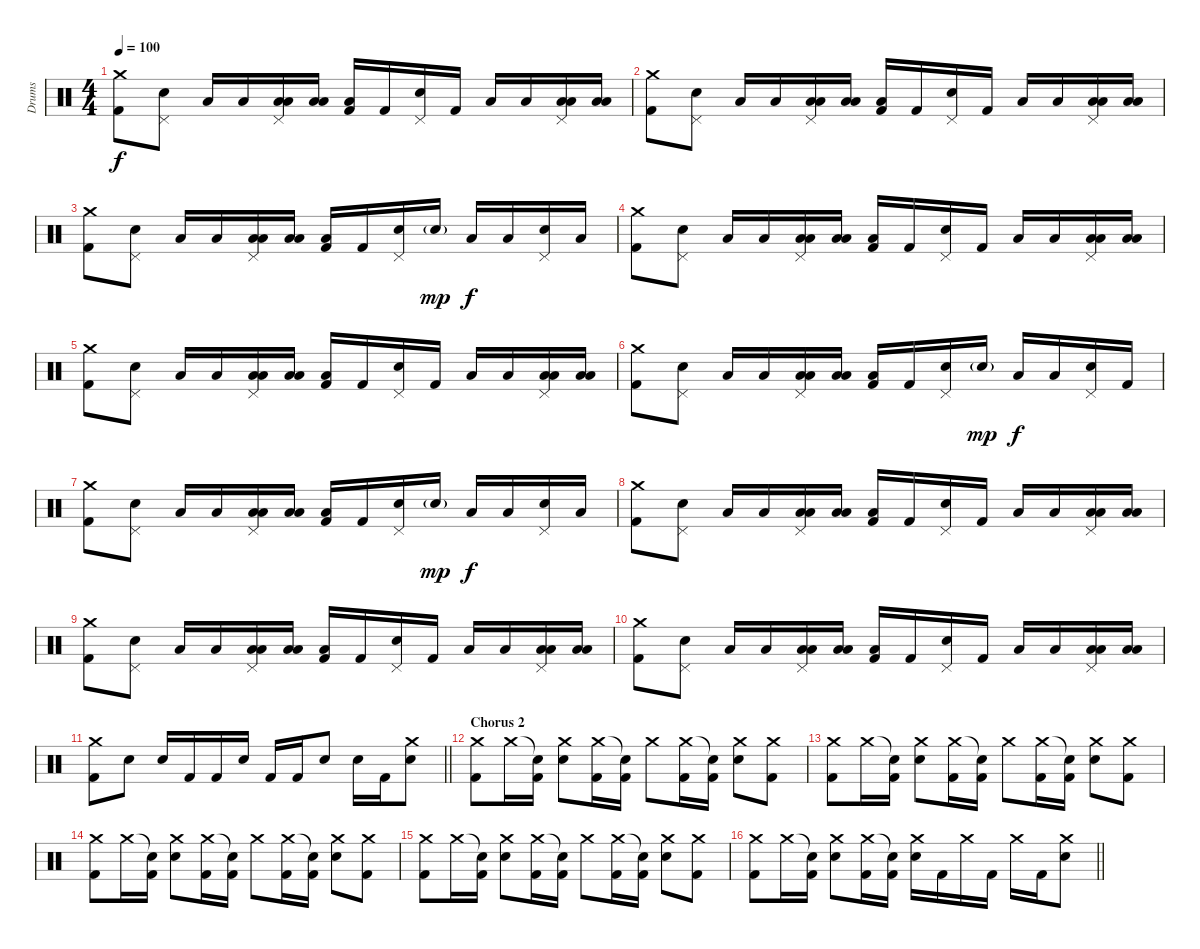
\track ("Drums" "Drums") {instrument percussion}
\staff {score}
\articulation defaults
\ts (4 4)
\tempo 100
\clef neutral
\ks c
("Crash medium (hit)" "Kick (hit) 2").8{dy f} ("Pedal Hi-Hat (hit)" "Electric Snare (hit)").8 "Low Floor Tom (hit)".16 "Low Floor Tom (hit)".16 ("Pedal Hi-Hat (hit)" "Low Tom (hit)" "Low Floor Tom (hit)").16 ("Low Tom (hit)" "Low Floor Tom (hit)").16 ("Low Floor Tom (hit)" "Kick (hit) 2").16 "Kick (hit) 2".16 ("Pedal Hi-Hat (hit)" "Electric Snare (hit)").16 "Kick (hit) 2".16 "Low Floor Tom (hit)".16 "Low Floor Tom (hit)".16 ("Pedal Hi-Hat (hit)" "Low Tom (hit)" "Low Floor Tom (hit)").16 ("Low Tom (hit)" "Low Floor Tom (hit)").16 |
("Crash medium (hit)" "Kick (hit) 2").8 ("Pedal Hi-Hat (hit)" "Electric Snare (hit)").8 "Low Floor Tom (hit)".16 "Low Floor Tom (hit)".16 ("Pedal Hi-Hat (hit)" "Low Tom (hit)" "Low Floor Tom (hit)").16 ("Low Tom (hit)" "Low Floor Tom (hit)").16 ("Low Floor Tom (hit)" "Kick (hit) 2").16 "Kick (hit) 2".16 ("Pedal Hi-Hat (hit)" "Electric Snare (hit)").16 "Kick (hit) 2".16 "Low Floor Tom (hit)".16 "Low Floor Tom (hit)".16 ("Pedal Hi-Hat (hit)" "Low Tom (hit)" "Low Floor Tom (hit)").16 ("Low Tom (hit)" "Low Floor Tom (hit)").16 |
("Crash medium (hit)" "Kick (hit) 2").8 ("Pedal Hi-Hat (hit)" "Electric Snare (hit)").8 "Low Floor Tom (hit)".16 "Low Floor Tom (hit)".16 ("Pedal Hi-Hat (hit)" "Low Tom (hit)" "Low Floor Tom (hit)").16 ("Low Tom (hit)" "Low Floor Tom (hit)").16 ("Low Floor Tom (hit)" "Kick (hit) 2").16 "Kick (hit) 2".16 ("Pedal Hi-Hat (hit)" "Electric Snare (hit)").16 "Electric Snare (hit)"{g}.16{dy mp} "Low Floor Tom (hit)".16{dy f} "Low Floor Tom (hit)".16 ("Pedal Hi-Hat (hit)" "Electric Snare (hit)").16 "Low Floor Tom (hit)".16 |
("Crash medium (hit)" "Kick (hit) 2").8 ("Pedal Hi-Hat (hit)" "Electric Snare (hit)").8 "Low Floor Tom (hit)".16 "Low Floor Tom (hit)".16 ("Pedal Hi-Hat (hit)" "Low Tom (hit)" "Low Floor Tom (hit)").16 ("Low Tom (hit)" "Low Floor Tom (hit)").16 ("Low Floor Tom (hit)" "Kick (hit) 2").16 "Kick (hit) 2".16 ("Pedal Hi-Hat (hit)" "Electric Snare (hit)").16 "Kick (hit) 2".16 "Low Floor Tom (hit)".16 "Low Floor Tom (hit)".16 ("Pedal Hi-Hat (hit)" "Low Tom (hit)" "Low Floor Tom (hit)").16 ("Low Tom (hit)" "Low Floor Tom (hit)").16 |
("Crash medium (hit)" "Kick (hit) 2").8 ("Pedal Hi-Hat (hit)" "Electric Snare (hit)").8 "Low Floor Tom (hit)".16 "Low Floor Tom (hit)".16 ("Pedal Hi-Hat (hit)" "Low Tom (hit)" "Low Floor Tom (hit)").16 ("Low Tom (hit)" "Low Floor Tom (hit)").16 ("Low Floor Tom (hit)" "Kick (hit) 2").16 "Kick (hit) 2".16 ("Pedal Hi-Hat (hit)" "Electric Snare (hit)").16 "Kick (hit) 2".16 "Low Floor Tom (hit)".16 "Low Floor Tom (hit)".16 ("Pedal Hi-Hat (hit)" "Low Tom (hit)" "Low Floor Tom (hit)").16 ("Low Tom (hit)" "Low Floor Tom (hit)").16 |
("Crash medium (hit)" "Kick (hit) 2").8 ("Pedal Hi-Hat (hit)" "Electric Snare (hit)").8 "Low Floor Tom (hit)".16 "Low Floor Tom (hit)".16 ("Pedal Hi-Hat (hit)" "Low Tom (hit)" "Low Floor Tom (hit)").16 ("Low Tom (hit)" "Low Floor Tom (hit)").16 ("Low Floor Tom (hit)" "Kick (hit) 2").16 "Kick (hit) 2".16 ("Pedal Hi-Hat (hit)" "Electric Snare (hit)").16 "Electric Snare (hit)"{g}.16{dy mp} "Low Floor Tom (hit)".16{dy f} "Low Floor Tom (hit)".16 ("Pedal Hi-Hat (hit)" "Electric Snare (hit)").16 "Kick (hit) 2".16 |
("Crash medium (hit)" "Kick (hit) 2").8 ("Pedal Hi-Hat (hit)" "Electric Snare (hit)").8 "Low Floor Tom (hit)".16 "Low Floor Tom (hit)".16 ("Pedal Hi-Hat (hit)" "Low Tom (hit)" "Low Floor Tom (hit)").16 ("Low Tom (hit)" "Low Floor Tom (hit)").16 ("Low Floor Tom (hit)" "Kick (hit) 2").16 "Kick (hit) 2".16 ("Pedal Hi-Hat (hit)" "Electric Snare (hit)").16 "Electric Snare (hit)"{g}.16{dy mp} "Low Floor Tom (hit)".16{dy f} "Low Floor Tom (hit)".16 ("Pedal Hi-Hat (hit)" "Electric Snare (hit)").16 "Low Floor Tom (hit)".16 |
("Crash medium (hit)" "Kick (hit) 2").8 ("Pedal Hi-Hat (hit)" "Electric Snare (hit)").8 "Low Floor Tom (hit)".16 "Low Floor Tom (hit)".16 ("Pedal Hi-Hat (hit)" "Low Tom (hit)" "Low Floor Tom (hit)").16 ("Low Tom (hit)" "Low Floor Tom (hit)").16 ("Low Floor Tom (hit)" "Kick (hit) 2").16 "Kick (hit) 2".16 ("Pedal Hi-Hat (hit)" "Electric Snare (hit)").16 "Kick (hit) 2".16 "Low Floor Tom (hit)".16 "Low Floor Tom (hit)".16 ("Pedal Hi-Hat (hit)" "Low Tom (hit)" "Low Floor Tom (hit)").16 ("Low Tom (hit)" "Low Floor Tom (hit)").16 |
("Crash medium (hit)" "Kick (hit) 2").8 ("Pedal Hi-Hat (hit)" "Electric Snare (hit)").8 "Low Floor Tom (hit)".16 "Low Floor Tom (hit)".16 ("Pedal Hi-Hat (hit)" "Low Tom (hit)" "Low Floor Tom (hit)").16 ("Low Tom (hit)" "Low Floor Tom (hit)").16 ("Low Floor Tom (hit)" "Kick (hit) 2").16 "Kick (hit) 2".16 ("Pedal Hi-Hat (hit)" "Electric Snare (hit)").16 "Kick (hit) 2".16 "Low Floor Tom (hit)".16 "Low Floor Tom (hit)".16 ("Pedal Hi-Hat (hit)" "Low Tom (hit)" "Low Floor Tom (hit)").16 ("Low Tom (hit)" "Low Floor Tom (hit)").16 |
("Crash medium (hit)" "Kick (hit) 2").8 ("Pedal Hi-Hat (hit)" "Electric Snare (hit)").8 "Low Floor Tom (hit)".16 "Low Floor Tom (hit)".16 ("Pedal Hi-Hat (hit)" "Low Tom (hit)" "Low Floor Tom (hit)").16 ("Low Tom (hit)" "Low Floor Tom (hit)").16 ("Low Floor Tom (hit)" "Kick (hit) 2").16 "Kick (hit) 2".16 ("Pedal Hi-Hat (hit)" "Electric Snare (hit)").16 "Kick (hit) 2".16 "Low Floor Tom (hit)".16 "Low Floor Tom (hit)".16 ("Pedal Hi-Hat (hit)" "Low Tom (hit)" "Low Floor Tom (hit)").16 ("Low Tom (hit)" "Low Floor Tom (hit)").16 |
\barLineRight lightlight
("Crash medium (hit)" "Kick (hit) 2").8 "Electric Snare (hit)".8 "Electric Snare (hit)".16 "Kick (hit) 2".16 "Kick (hit) 2".16 "Electric Snare (hit)".16 "Kick (hit) 2".16 "Kick (hit) 2".16 "Electric Snare (hit)".8 "Electric Snare (hit)".16 "Kick (hit) 2".16 ("Crash medium (hit)" "Electric Snare (hit)").8 |
\section ("" "Chorus 2")
("Crash medium (hit)" "Kick (hit) 2").8 "Crash medium (hit)".16 ("Snare (hit)"{t} "Kick (hit) 2").16 ("Crash medium (hit)" "Electric Snare (hit)").8 ("Crash medium (hit)" "Kick (hit) 2").16 ("Snare (hit)"{t} "Kick (hit) 2").16 "Crash medium (hit)".8 ("Crash medium (hit)" "Kick (hit) 2").16 ("Snare (hit)"{t} "Kick (hit) 2").16 ("Crash medium (hit)" "Electric Snare (hit)").8 ("Crash medium (hit)" "Kick (hit) 2").8 |
("Crash medium (hit)" "Kick (hit) 2").8 "Crash medium (hit)".16 ("Snare (hit)"{t} "Kick (hit) 2").16 ("Crash medium (hit)" "Electric Snare (hit)").8 ("Crash medium (hit)" "Kick (hit) 2").16 ("Snare (hit)"{t} "Kick (hit) 2").16 "Crash medium (hit)".8 ("Crash medium (hit)" "Kick (hit) 2").16 ("Snare (hit)"{t} "Kick (hit) 2").16 ("Crash medium (hit)" "Electric Snare (hit)").8 ("Crash medium (hit)" "Kick (hit) 2").8 |
("Crash medium (hit)" "Kick (hit) 2").8 "Crash medium (hit)".16 ("Snare (hit)"{t} "Kick (hit) 2").16 ("Crash medium (hit)" "Electric Snare (hit)").8 ("Crash medium (hit)" "Kick (hit) 2").16 ("Snare (hit)"{t} "Kick (hit) 2").16 "Crash medium (hit)".8 ("Crash medium (hit)" "Kick (hit) 2").16 ("Snare (hit)"{t} "Kick (hit) 2").16 ("Crash medium (hit)" "Electric Snare (hit)").8 ("Crash medium (hit)" "Kick (hit) 2").8 |
("Crash medium (hit)" "Kick (hit) 2").8 "Crash medium (hit)".16 ("Snare (hit)"{t} "Kick (hit) 2").16 ("Crash medium (hit)" "Electric Snare (hit)").8 ("Crash medium (hit)" "Kick (hit) 2").16 ("Snare (hit)"{t} "Kick (hit) 2").16 "Crash medium (hit)".8 ("Crash medium (hit)" "Kick (hit) 2").16 ("Snare (hit)"{t} "Kick (hit) 2").16 ("Crash medium (hit)" "Electric Snare (hit)").8 ("Crash medium (hit)" "Kick (hit) 2").8 |
\barLineRight lightlight
("Crash medium (hit)" "Kick (hit) 2").8 "Crash medium (hit)".16 ("Snare (hit)"{t} "Kick (hit) 2").16 ("Crash medium (hit)" "Electric Snare (hit)").8 ("Crash medium (hit)" "Kick (hit) 2").16 ("Snare (hit)"{t} "Kick (hit) 2").16 ("Crash medium (hit)" "Electric Snare (hit)").16 "Kick (hit) 2".16 "Crash medium (hit)".16 "Kick (hit) 2".16 "Crash medium (hit)".16 "Kick (hit) 2".16 ("Crash medium (hit)" "Electric Snare (hit)").8
